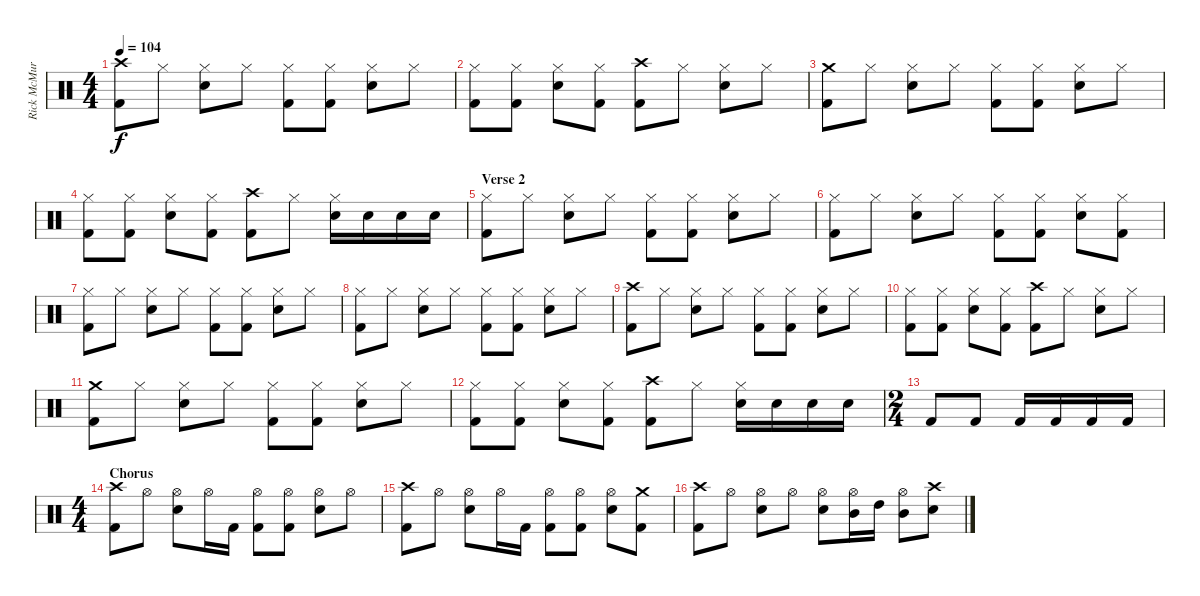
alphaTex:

\track ("Rick McMurray" "Rick McMur") {instrument percussion}
\staff {score}
\articulation defaults
\ts (4 4)
\tempo 104
\clef neutral
\ks c
("Crash high (hit)" "Kick (hit) 2").8{dy f} "Hi-Hat (closed)".8 ("Hi-Hat (closed)" "Snare (hit) 2").8 "Hi-Hat (closed)".8 ("Hi-Hat (closed)" "Kick (hit) 2").8 ("Hi-Hat (closed)" "Kick (hit) 2").8 ("Hi-Hat (closed)" "Snare (hit) 2").8 "Hi-Hat (closed)".8 |
("Hi-Hat (closed)" "Kick (hit) 2").8 ("Hi-Hat (closed)" "Kick (hit) 2").8 ("Hi-Hat (closed)" "Snare (hit) 2").8 ("Hi-Hat (closed)" "Kick (hit) 2").8 ("Crash high (hit)" "Kick (hit) 2").8 "Hi-Hat (closed)".8 ("Hi-Hat (closed)" "Snare (hit) 2").8 "Hi-Hat (closed)".8 |
("Crash medium (hit)" "Kick (hit) 2").8 "Hi-Hat (closed)".8 ("Hi-Hat (closed)" "Snare (hit) 2").8 "Hi-Hat (closed)".8 ("Hi-Hat (closed)" "Kick (hit) 2").8 ("Hi-Hat (closed)" "Kick (hit) 2").8 ("Hi-Hat (closed)" "Snare (hit) 2").8 "Hi-Hat (closed)".8 |
("Hi-Hat (closed)" "Kick (hit) 2").8 ("Hi-Hat (closed)" "Kick (hit) 2").8 ("Hi-Hat (closed)" "Snare (hit) 2").8 ("Hi-Hat (closed)" "Kick (hit) 2").8 ("Crash high (hit)" "Kick (hit) 2").8 "Hi-Hat (closed)".8 ("Hi-Hat (closed)" "Snare (hit) 2").16 "Snare (hit) 2".16 "Snare (hit) 2".16 "Snare (hit) 2".16 |
\section ("" "Verse 2")
("Hi-Hat (closed)" "Kick (hit) 2").8 "Hi-Hat (closed)".8 ("Hi-Hat (closed)" "Snare (hit) 2").8 "Hi-Hat (closed)".8 ("Hi-Hat (closed)" "Kick (hit) 2").8 ("Hi-Hat (closed)" "Kick (hit) 2").8 ("Hi-Hat (closed)" "Snare (hit) 2").8 "Hi-Hat (closed)".8 |
("Hi-Hat (closed)" "Kick (hit) 2").8 "Hi-Hat (closed)".8 ("Hi-Hat (closed)" "Snare (hit) 2").8 "Hi-Hat (closed)".8 ("Hi-Hat (closed)" "Kick (hit) 2").8 ("Hi-Hat (closed)" "Kick (hit) 2").8 ("Hi-Hat (closed)" "Snare (hit) 2").8 ("Hi-Hat (closed)" "Kick (hit) 2").8 |
("Hi-Hat (closed)" "Kick (hit) 2").8 "Hi-Hat (closed)".8 ("Hi-Hat (closed)" "Snare (hit) 2").8 "Hi-Hat (closed)".8 ("Hi-Hat (closed)" "Kick (hit) 2").8 ("Hi-Hat (closed)" "Kick (hit) 2").8 ("Hi-Hat (closed)" "Snare (hit) 2").8 "Hi-Hat (closed)".8 |
("Hi-Hat (closed)" "Kick (hit) 2").8 "Hi-Hat (closed)".8 ("Hi-Hat (closed)" "Snare (hit) 2").8 "Hi-Hat (closed)".8 ("Hi-Hat (closed)" "Kick (hit) 2").8 ("Hi-Hat (closed)" "Kick (hit) 2").8 ("Hi-Hat (closed)" "Snare (hit) 2").8 "Hi-Hat (closed)".8 |
("Crash high (hit)" "Kick (hit) 2").8 "Hi-Hat (closed)".8 ("Hi-Hat (closed)" "Snare (hit) 2").8 "Hi-Hat (closed)".8 ("Hi-Hat (closed)" "Kick (hit) 2").8 ("Hi-Hat (closed)" "Kick (hit) 2").8 ("Hi-Hat (closed)" "Snare (hit) 2").8 "Hi-Hat (closed)".8 |
("Hi-Hat (closed)" "Kick (hit) 2").8 ("Hi-Hat (closed)" "Kick (hit) 2").8 ("Hi-Hat (closed)" "Snare (hit) 2").8 ("Hi-Hat (closed)" "Kick (hit) 2").8 ("Crash high (hit)" "Kick (hit) 2").8 "Hi-Hat (closed)".8 ("Hi-Hat (closed)" "Snare (hit) 2").8 "Hi-Hat (closed)".8 |
("Crash medium (hit)" "Kick (hit) 2").8 "Hi-Hat (closed)".8 ("Hi-Hat (closed)" "Snare (hit) 2").8 "Hi-Hat (closed)".8 ("Hi-Hat (closed)" "Kick (hit) 2").8 ("Hi-Hat (closed)" "Kick (hit) 2").8 ("Hi-Hat (closed)" "Snare (hit) 2").8 "Hi-Hat (closed)".8 |
("Hi-Hat (closed)" "Kick (hit) 2").8 ("Hi-Hat (closed)" "Kick (hit) 2").8 ("Hi-Hat (closed)" "Snare (hit) 2").8 ("Hi-Hat (closed)" "Kick (hit) 2").8 ("Crash high (hit)" "Kick (hit) 2").8 "Hi-Hat (closed)".8 ("Hi-Hat (closed)" "Snare (hit) 2").16 "Snare (hit) 2".16 "Snare (hit) 2".16 "Snare (hit) 2".16 |
\ts (2 4)
"Kick (hit) 2".8 "Kick (hit) 2".8 "Kick (hit) 2".16 "Kick (hit) 2".16 "Kick (hit) 2".16 "Kick (hit) 2".16 |
\ts (4 4)
\section ("" "Chorus")
("Crash high (hit)" "Kick (hit) 2").8 "Hi-Hat (open)".8 ("Hi-Hat (open)" "Snare (hit) 2").8 "Hi-Hat (open)".16 "Kick (hit) 2".16 ("Hi-Hat (open)" "Kick (hit) 2").8 ("Hi-Hat (open)" "Kick (hit) 2").8 ("Hi-Hat (open)" "Snare (hit) 2").8 "Hi-Hat (open)".8 |
("Crash high (hit)" "Kick (hit) 2").8 "Hi-Hat (open)".8 ("Hi-Hat (open)" "Snare (hit) 2").8 "Hi-Hat (open)".16 "Kick (hit) 2".16 ("Hi-Hat (open)" "Kick (hit) 2").8 ("Hi-Hat (open)" "Kick (hit) 2").8 ("Hi-Hat (open)" "Snare (hit) 2").8 ("Crash medium (hit)" "Kick (hit) 2").8 |
("Crash high (hit)" "Kick (hit) 2").8 "Hi-Hat (open)".8 ("Hi-Hat (open)" "Snare (hit) 2").8 "Hi-Hat (open)".8 ("Hi-Hat (open)" "Snare (hit) 2").8 ("Hi-Hat (open)" "Mid Tom (hit)").16 "High Tom (hit)".16 ("Hi-Hat (open)" "Mid Tom (hit)").8 ("Crash high (hit)" "Snare (hit) 2").8
